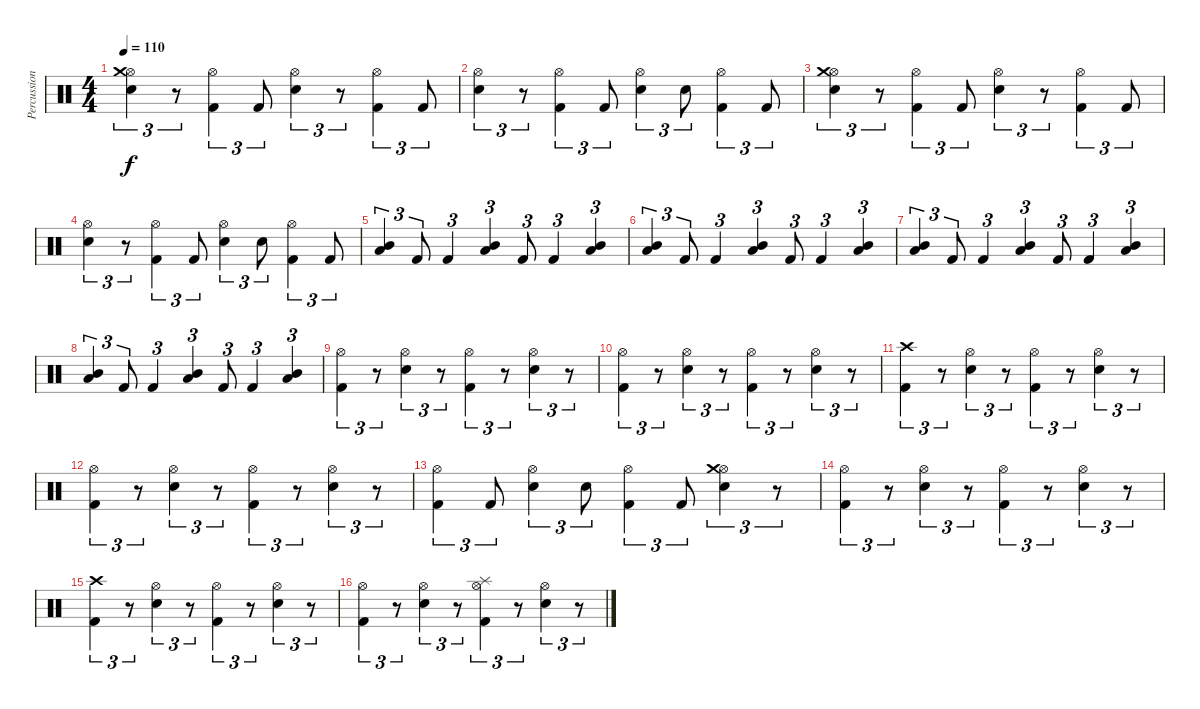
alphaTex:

\track ("Percussion" "Percussion") {instrument percussion}
\staff {score}
\articulation defaults
\ts (4 4)
\tempo 110
\clef neutral
\ks c
("Electric Snare (hit)" "Hi-Hat (open)" "Crash medium (hit)").4{tu (3 2) dy f} r.8{tu (3 2)} ("Kick (hit) 2" "Hi-Hat (open)").4{tu (3 2)} "Kick (hit) 2".8{tu (3 2)} ("Electric Snare (hit)" "Hi-Hat (open)").4{tu (3 2)} r.8{tu (3 2)} ("Kick (hit) 2" "Hi-Hat (open)").4{tu (3 2)} "Kick (hit) 2".8{tu (3 2)} |
("Electric Snare (hit)" "Hi-Hat (open)").4{tu (3 2)} r.8{tu (3 2)} ("Kick (hit) 2" "Hi-Hat (open)").4{tu (3 2)} "Kick (hit) 2".8{tu (3 2)} ("Electric Snare (hit)" "Hi-Hat (open)").4{tu (3 2)} "Electric Snare (hit)".8{tu (3 2)} ("Kick (hit) 2" "Hi-Hat (open)").4{tu (3 2)} "Kick (hit) 2".8{tu (3 2)} |
("Electric Snare (hit)" "Hi-Hat (open)" "Crash medium (hit)").4{tu (3 2)} r.8{tu (3 2)} ("Kick (hit) 2" "Hi-Hat (open)").4{tu (3 2)} "Kick (hit) 2".8{tu (3 2)} ("Electric Snare (hit)" "Hi-Hat (open)").4{tu (3 2)} r.8{tu (3 2)} ("Kick (hit) 2" "Hi-Hat (open)").4{tu (3 2)} "Kick (hit) 2".8{tu (3 2)} |
("Electric Snare (hit)" "Hi-Hat (open)").4{tu (3 2)} r.8{tu (3 2)} ("Kick (hit) 2" "Hi-Hat (open)").4{tu (3 2)} "Kick (hit) 2".8{tu (3 2)} ("Electric Snare (hit)" "Hi-Hat (open)").4{tu (3 2)} "Electric Snare (hit)".8{tu (3 2)} ("Kick (hit) 2" "Hi-Hat (open)").4{tu (3 2)} "Kick (hit) 2".8{tu (3 2)} |
("Low Tom (hit)" "Mid Tom (hit)").4{tu (3 2)} "Kick (hit) 2".8{tu (3 2)} "Kick (hit) 2".4{tu (3 2)} ("Low Tom (hit)" "Mid Tom (hit)").4{tu (3 2)} "Kick (hit) 2".8{tu (3 2)} "Kick (hit) 2".4{tu (3 2)} ("Low Tom (hit)" "Mid Tom (hit)").4{tu (3 2)} |
("Low Tom (hit)" "Mid Tom (hit)").4{tu (3 2)} "Kick (hit) 2".8{tu (3 2)} "Kick (hit) 2".4{tu (3 2)} ("Low Tom (hit)" "Mid Tom (hit)").4{tu (3 2)} "Kick (hit) 2".8{tu (3 2)} "Kick (hit) 2".4{tu (3 2)} ("Low Tom (hit)" "Mid Tom (hit)").4{tu (3 2)} |
("Low Tom (hit)" "Mid Tom (hit)").4{tu (3 2)} "Kick (hit) 2".8{tu (3 2)} "Kick (hit) 2".4{tu (3 2)} ("Low Tom (hit)" "Mid Tom (hit)").4{tu (3 2)} "Kick (hit) 2".8{tu (3 2)} "Kick (hit) 2".4{tu (3 2)} ("Low Tom (hit)" "Mid Tom (hit)").4{tu (3 2)} |
("Low Tom (hit)" "Mid Tom (hit)").4{tu (3 2)} "Kick (hit) 2".8{tu (3 2)} "Kick (hit) 2".4{tu (3 2)} ("Low Tom (hit)" "Mid Tom (hit)").4{tu (3 2)} "Kick (hit) 2".8{tu (3 2)} "Kick (hit) 2".4{tu (3 2)} ("Low Tom (hit)" "Mid Tom (hit)").4{tu (3 2)} |
("Kick (hit) 2" "Hi-Hat (open)").4{tu (3 2)} r.8{tu (3 2)} ("Electric Snare (hit)" "Hi-Hat (open)").4{tu (3 2)} r.8{tu (3 2)} ("Kick (hit) 2" "Hi-Hat (open)").4{tu (3 2)} r.8{tu (3 2)} ("Electric Snare (hit)" "Hi-Hat (open)").4{tu (3 2)} r.8{tu (3 2)} |
("Kick (hit) 2" "Hi-Hat (open)").4{tu (3 2)} r.8{tu (3 2)} ("Electric Snare (hit)" "Hi-Hat (open)").4{tu (3 2)} r.8{tu (3 2)} ("Kick (hit) 2" "Hi-Hat (open)").4{tu (3 2)} r.8{tu (3 2)} ("Electric Snare (hit)" "Hi-Hat (open)").4{tu (3 2)} r.8{tu (3 2)} |
("Kick (hit) 2" "Crash high (hit)").4{tu (3 2)} r.8{tu (3 2)} ("Electric Snare (hit)" "Hi-Hat (open)").4{tu (3 2)} r.8{tu (3 2)} ("Kick (hit) 2" "Hi-Hat (open)").4{tu (3 2)} r.8{tu (3 2)} ("Electric Snare (hit)" "Hi-Hat (open)").4{tu (3 2)} r.8{tu (3 2)} |
("Kick (hit) 2" "Hi-Hat (open)").4{tu (3 2)} r.8{tu (3 2)} ("Electric Snare (hit)" "Hi-Hat (open)").4{tu (3 2)} r.8{tu (3 2)} ("Kick (hit) 2" "Hi-Hat (open)").4{tu (3 2)} r.8{tu (3 2)} ("Electric Snare (hit)" "Hi-Hat (open)").4{tu (3 2)} r.8{tu (3 2)} |
("Kick (hit) 2" "Hi-Hat (open)").4{tu (3 2)} "Kick (hit) 2".8{tu (3 2)} ("Electric Snare (hit)" "Hi-Hat (open)").4{tu (3 2)} "Electric Snare (hit)".8{tu (3 2)} ("Kick (hit) 2" "Hi-Hat (open)").4{tu (3 2)} "Kick (hit) 2".8{tu (3 2)} ("Electric Snare (hit)" "Hi-Hat (open)" "Crash medium (hit)").4{tu (3 2)} r.8{tu (3 2)} |
("Kick (hit) 2" "Hi-Hat (open)").4{tu (3 2)} r.8{tu (3 2)} ("Electric Snare (hit)" "Hi-Hat (open)").4{tu (3 2)} r.8{tu (3 2)} ("Kick (hit) 2" "Hi-Hat (open)").4{tu (3 2)} r.8{tu (3 2)} ("Electric Snare (hit)" "Hi-Hat (open)").4{tu (3 2)} r.8{tu (3 2)} |
("Kick (hit) 2" "Crash high (hit)").4{tu (3 2)} r.8{tu (3 2)} ("Electric Snare (hit)" "Hi-Hat (open)").4{tu (3 2)} r.8{tu (3 2)} ("Kick (hit) 2" "Hi-Hat (open)").4{tu (3 2)} r.8{tu (3 2)} ("Electric Snare (hit)" "Hi-Hat (open)").4{tu (3 2)} r.8{tu (3 2)} |
("Kick (hit) 2" "Hi-Hat (open)").4{tu (3 2)} r.8{tu (3 2)} ("Electric Snare (hit)" "Hi-Hat (open)").4{tu (3 2)} r.8{tu (3 2)} ("Kick (hit) 2" "Hi-Hat (open)" "Splash (hit)").4{tu (3 2)} r.8{tu (3 2)} ("Electric Snare (hit)" "Hi-Hat (open)").4{tu (3 2)} r.8{tu (3 2)}
